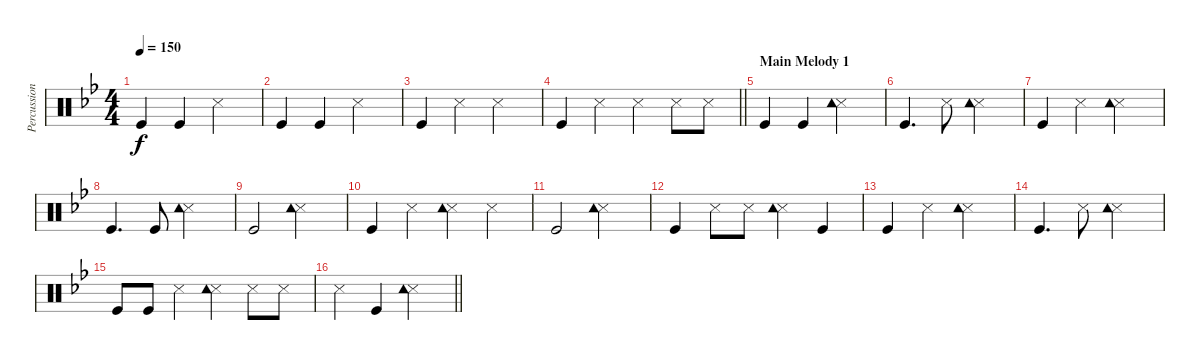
\track ("Percussion" "Percussion") {instrument percussion}
\staff {score}
\articulation defaults
\ts (4 4)
\tempo 150
\clef neutral
\ks gminor "Kick (hit)".4{dy f} "Kick (hit)".4 "Snare (side stick) 3".2
|
"Kick (hit)".4 "Kick (hit)".4 "Snare (side stick) 3".2 |
"Kick (hit)".4 "Snare (side stick) 3".4 "Snare (side stick) 3".2 |
\barLineRight lightlight "Kick (hit)".4 "Snare (side stick) 3".4 "Snare (side stick) 3".4 "Snare (side stick) 3".8 "Snare (side stick) 3".8
|
\section ("" "Main Melody 1")
"Kick (hit)".4 "Kick (hit)".4 ("Snare (side stick) 3" "Tambourine (hit)").2 |
"Kick (hit)".4{d} "Snare (side stick) 3".8 ("Snare (side stick) 3" "Tambourine (hit)").2 |
"Kick (hit)".4 "Snare (side stick) 3".4 ("Snare (side stick) 3" "Tambourine (hit)").2 |
"Kick (hit)".4{d} "Kick (hit)".8 ("Snare (side stick) 3" "Tambourine (hit)").2 |
"Kick (hit)".2 ("Snare (side stick) 3" "Tambourine (hit)").2 |
"Kick (hit)".4 "Snare (side stick) 3".4 ("Snare (side stick) 3" "Tambourine (hit)").4 "Snare (side stick) 3".4 |
"Kick (hit)".2 ("Snare (side stick) 3" "Tambourine (hit)").2 |
"Kick (hit)".4 "Snare (side stick) 3".8 "Snare (side stick) 3".8 ("Snare (side stick) 3" "Tambourine (hit)").4 "Kick (hit)".4 |
"Kick (hit)".4 "Snare (side stick) 3".4 ("Snare (side stick) 3" "Tambourine (hit)").2 |
"Kick (hit)".4{d} "Snare (side stick) 3".8 ("Snare (side stick) 3" "Tambourine (hit)").2 |
"Kick (hit)".8 "Kick (hit)".8 "Snare (side stick) 3".4 ("Snare (side stick) 3" "Tambourine (hit)").4 "Snare (side stick) 3".8 "Snare (side stick) 3".8 |
\barLineRight lightlight "Snare (side stick) 3".4 "Kick (hit)".4
("Snare (side stick) 3" "Tambourine (hit)").2
